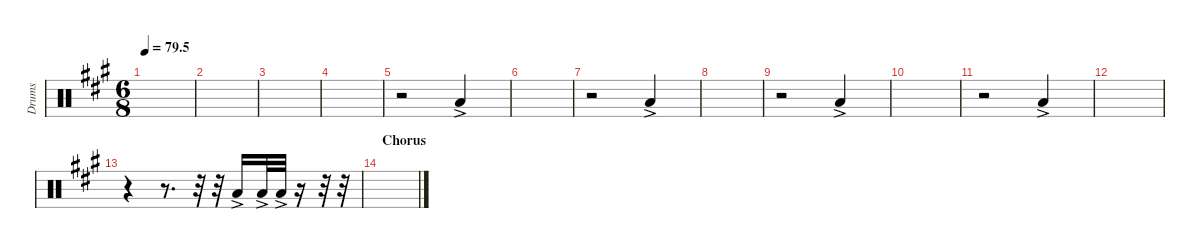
\defaultSystemsLayout 4
\hideDynamics
\bracketExtendMode nobrackets
\otherSystemsTrackNameOrientation horizontal
\track ("Tom 03" "Drums") {instrument percussion}
\staff {score}
\articulation defaults
\ts (6 8)
\tempo
79.5
\accidentals auto
\clef neutral
\ottava regular
\simile none
\scale
0.333333
\ks a
|
\scale
0.333333 |
\scale
0.333333 |
\scale
0.333333 |
\scale
0.333333 r.2 "Low Tom (hit)"{ac acc forcenatural}.4 |
\scale
0.333333 |
\scale
0.333333 r.2 "Low Tom (hit)"{ac acc forcenatural}.4 |
\scale
0.333333 |
\scale
0.333333 r.2 "Low Tom (hit)"{ac acc forcenatural}.4 |
\scale
0.333333 |
\scale
0.333333 r.2 "Low Tom (hit)"{ac acc forcenatural}.4 |
\scale
0.333333 |
\scale
0.333333 r.4 r.8{d} r.32 r.32 "Low Tom (hit)"{ac acc forcenatural}.16 "Low Tom (hit)"{ac acc forcenatural}.32 "Low Tom (hit)"{ac acc forcenatural}.32 r.16 r.32 r.32 |
\section ("" "Chorus")
\scale
0.333333 |
\scale
0.333333 |
\scale
0.333333
